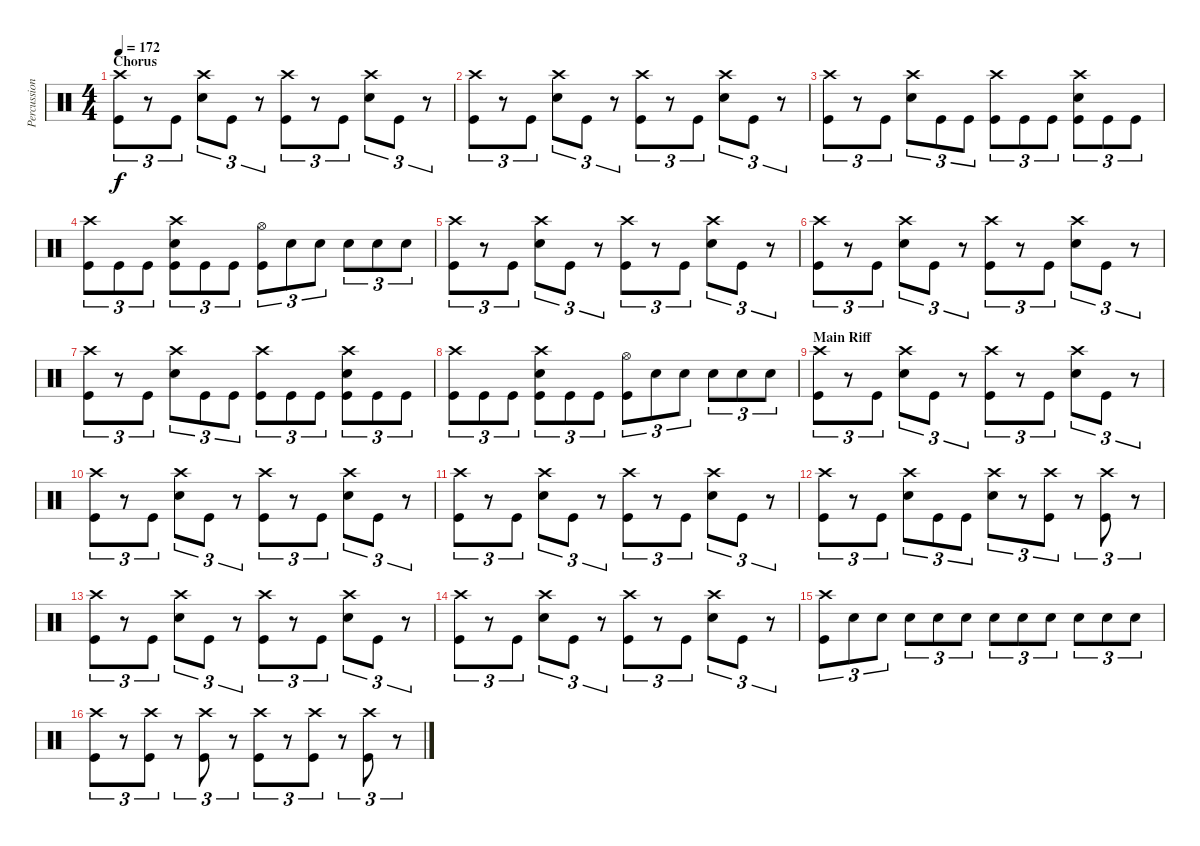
\track ("Percussion" "Percussion") {instrument percussion}
\staff {score}
\articulation defaults
\ts (4 4)
\section ("" "Chorus")
\tempo 172
\clef neutral
\ks c
("Crash high (hit)" "Kick (hit)").8{tu (3 2) dy f} r.8{tu (3 2)} "Kick (hit)".8{tu (3 2)} ("Crash high (hit)" "Snare (hit) 2").8{tu (3 2)} "Kick (hit)".8{tu (3 2)} r.8{tu (3 2)} ("Crash high (hit)" "Kick (hit)").8{tu (3 2)} r.8{tu (3 2)} "Kick (hit)".8{tu (3 2)} ("Crash high (hit)" "Snare (hit) 2").8{tu (3 2)} "Kick (hit)".8{tu (3 2)} r.8{tu (3 2)} |
("Crash high (hit)" "Kick (hit)").8{tu (3 2)} r.8{tu (3 2)} "Kick (hit)".8{tu (3 2)} ("Crash high (hit)" "Snare (hit) 2").8{tu (3 2)} "Kick (hit)".8{tu (3 2)} r.8{tu (3 2)} ("Crash high (hit)" "Kick (hit)").8{tu (3 2)} r.8{tu (3 2)} "Kick (hit)".8{tu (3 2)} ("Crash high (hit)" "Snare (hit) 2").8{tu (3 2)} "Kick (hit)".8{tu (3 2)} r.8{tu (3 2)} |
("Crash high (hit)" "Kick (hit)").8{tu (3 2)} r.8{tu (3 2)} "Kick (hit)".8{tu (3 2)} ("Crash high (hit)" "Snare (hit) 2").8{tu (3 2)} "Kick (hit)".8{tu (3 2)} "Kick (hit)".8{tu (3 2)} ("Crash high (hit)" "Kick (hit)").8{tu (3 2)} "Kick (hit)".8{tu (3 2)} "Kick (hit)".8{tu (3 2)} ("Crash high (hit)" "Snare (hit) 2" "Kick (hit)").8{tu (3 2)} "Kick (hit)".8{tu (3 2)} "Kick (hit)".8{tu (3 2)} |
("Crash high (hit)" "Kick (hit)").8{tu (3 2)} "Kick (hit)".8{tu (3 2)} "Kick (hit)".8{tu (3 2)} ("Crash high (hit)" "Snare (hit) 2" "Kick (hit)").8{tu (3 2)} "Kick (hit)".8{tu (3 2)} "Kick (hit)".8{tu (3 2)} ("Hi-Hat (open)" "Kick (hit)").8{tu (3 2)} "Snare (hit) 2".8{tu (3 2)} "Snare (hit) 2".8{tu (3 2)} "Snare (hit) 2".8{tu (3 2)} "Snare (hit) 2".8{tu (3 2)} "Snare (hit) 2".8{tu (3 2)} |
("Crash high (hit)" "Kick (hit)").8{tu (3 2)} r.8{tu (3 2)} "Kick (hit)".8{tu (3 2)} ("Crash high (hit)" "Snare (hit) 2").8{tu (3 2)} "Kick (hit)".8{tu (3 2)} r.8{tu (3 2)} ("Crash high (hit)" "Kick (hit)").8{tu (3 2)} r.8{tu (3 2)} "Kick (hit)".8{tu (3 2)} ("Crash high (hit)" "Snare (hit) 2").8{tu (3 2)} "Kick (hit)".8{tu (3 2)} r.8{tu (3 2)} |
("Crash high (hit)" "Kick (hit)").8{tu (3 2)} r.8{tu (3 2)} "Kick (hit)".8{tu (3 2)} ("Crash high (hit)" "Snare (hit) 2").8{tu (3 2)} "Kick (hit)".8{tu (3 2)} r.8{tu (3 2)} ("Crash high (hit)" "Kick (hit)").8{tu (3 2)} r.8{tu (3 2)} "Kick (hit)".8{tu (3 2)} ("Crash high (hit)" "Snare (hit) 2").8{tu (3 2)} "Kick (hit)".8{tu (3 2)} r.8{tu (3 2)} |
("Crash high (hit)" "Kick (hit)").8{tu (3 2)} r.8{tu (3 2)} "Kick (hit)".8{tu (3 2)} ("Crash high (hit)" "Snare (hit) 2").8{tu (3 2)} "Kick (hit)".8{tu (3 2)} "Kick (hit)".8{tu (3 2)} ("Crash high (hit)" "Kick (hit)").8{tu (3 2)} "Kick (hit)".8{tu (3 2)} "Kick (hit)".8{tu (3 2)} ("Crash high (hit)" "Snare (hit) 2" "Kick (hit)").8{tu (3 2)} "Kick (hit)".8{tu (3 2)} "Kick (hit)".8{tu (3 2)} |
("Crash high (hit)" "Kick (hit)").8{tu (3 2)} "Kick (hit)".8{tu (3 2)} "Kick (hit)".8{tu (3 2)} ("Crash high (hit)" "Snare (hit) 2" "Kick (hit)").8{tu (3 2)} "Kick (hit)".8{tu (3 2)} "Kick (hit)".8{tu (3 2)} ("Hi-Hat (open)" "Kick (hit)").8{tu (3 2)} "Snare (hit) 2".8{tu (3 2)} "Snare (hit) 2".8{tu (3 2)} "Snare (hit) 2".8{tu (3 2)} "Snare (hit) 2".8{tu (3 2)} "Snare (hit) 2".8{tu (3 2)} |
\section ("" "Main Riff")
("Crash high (hit)" "Kick (hit)").8{tu (3 2)} r.8{tu (3 2)} "Kick (hit)".8{tu (3 2)} ("Crash high (hit)" "Snare (hit) 2").8{tu (3 2)} "Kick (hit)".8{tu (3 2)} r.8{tu (3 2)} ("Crash high (hit)" "Kick (hit)").8{tu (3 2)} r.8{tu (3 2)} "Kick (hit)".8{tu (3 2)} ("Crash high (hit)" "Snare (hit) 2").8{tu (3 2)} "Kick (hit)".8{tu (3 2)} r.8{tu (3 2)} |
("Crash high (hit)" "Kick (hit)").8{tu (3 2)} r.8{tu (3 2)} "Kick (hit)".8{tu (3 2)} ("Crash high (hit)" "Snare (hit) 2").8{tu (3 2)} "Kick (hit)".8{tu (3 2)} r.8{tu (3 2)} ("Crash high (hit)" "Kick (hit)").8{tu (3 2)} r.8{tu (3 2)} "Kick (hit)".8{tu (3 2)} ("Crash high (hit)" "Snare (hit) 2").8{tu (3 2)} "Kick (hit)".8{tu (3 2)} r.8{tu (3 2)} |
("Crash high (hit)" "Kick (hit)").8{tu (3 2)} r.8{tu (3 2)} "Kick (hit)".8{tu (3 2)} ("Crash high (hit)" "Snare (hit) 2").8{tu (3 2)} "Kick (hit)".8{tu (3 2)} r.8{tu (3 2)} ("Crash high (hit)" "Kick (hit)").8{tu (3 2)} r.8{tu (3 2)} "Kick (hit)".8{tu (3 2)} ("Crash high (hit)" "Snare (hit) 2").8{tu (3 2)} "Kick (hit)".8{tu (3 2)} r.8{tu (3 2)} |
("Crash high (hit)" "Kick (hit)").8{tu (3 2)} r.8{tu (3 2)} "Kick (hit)".8{tu (3 2)} ("Crash high (hit)" "Snare (hit) 2").8{tu (3 2)} "Kick (hit)".8{tu (3 2)} "Kick (hit)".8{tu (3 2)} ("Crash high (hit)" "Snare (hit) 2").8{tu (3 2)} r.8{tu (3 2)} ("Crash high (hit)" "Kick (hit)").8{tu (3 2)} r.8{tu (3 2)} ("Crash high (hit)" "Kick (hit)").8{tu (3 2)} r.8{tu (3 2)} |
("Crash high (hit)" "Kick (hit)").8{tu (3 2)} r.8{tu (3 2)} "Kick (hit)".8{tu (3 2)} ("Crash high (hit)" "Snare (hit) 2").8{tu (3 2)} "Kick (hit)".8{tu (3 2)} r.8{tu (3 2)} ("Crash high (hit)" "Kick (hit)").8{tu (3 2)} r.8{tu (3 2)} "Kick (hit)".8{tu (3 2)} ("Crash high (hit)" "Snare (hit) 2").8{tu (3 2)} "Kick (hit)".8{tu (3 2)} r.8{tu (3 2)} |
("Crash high (hit)" "Kick (hit)").8{tu (3 2)} r.8{tu (3 2)} "Kick (hit)".8{tu (3 2)} ("Crash high (hit)" "Snare (hit) 2").8{tu (3 2)} "Kick (hit)".8{tu (3 2)} r.8{tu (3 2)} ("Crash high (hit)" "Kick (hit)").8{tu (3 2)} r.8{tu (3 2)} "Kick (hit)".8{tu (3 2)} ("Crash high (hit)" "Snare (hit) 2").8{tu (3 2)} "Kick (hit)".8{tu (3 2)} r.8{tu (3 2)} |
("Crash high (hit)" "Kick (hit)").8{tu (3 2)} "Snare (hit) 2".8{tu (3 2)} "Snare (hit) 2".8{tu (3 2)} "Snare (hit) 2".8{tu (3 2)} "Snare (hit) 2".8{tu (3 2)} "Snare (hit) 2".8{tu (3 2)} "Snare (hit) 2".8{tu (3 2)} "Snare (hit) 2".8{tu (3 2)} "Snare (hit) 2".8{tu (3 2)} "Snare (hit) 2".8{tu (3 2)} "Snare (hit) 2".8{tu (3 2)} "Snare (hit) 2".8{tu (3 2)} |
("Crash high (hit)" "Kick (hit)").8{tu (3 2)} r.8{tu (3 2)} ("Crash high (hit)" "Kick (hit)").8{tu (3 2)} r.8{tu (3 2)} ("Crash high (hit)" "Kick (hit)").8{tu (3 2)} r.8{tu (3 2)} ("Crash high (hit)" "Kick (hit)").8{tu (3 2)} r.8{tu (3 2)} ("Crash high (hit)" "Kick (hit)").8{tu (3 2)} r.8{tu (3 2)} ("Crash high (hit)" "Kick (hit)").8{tu (3 2)} r.8{tu (3 2)}
